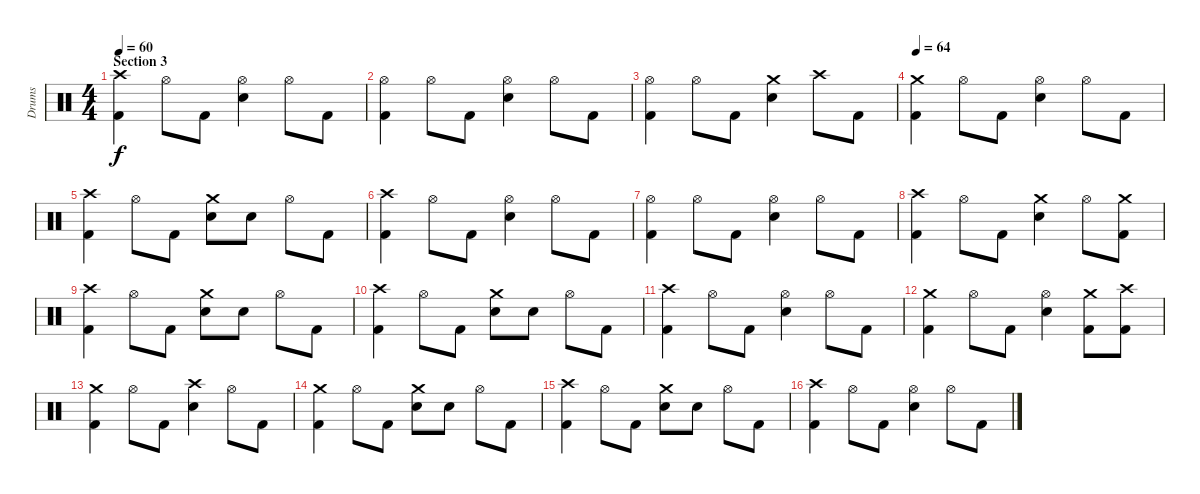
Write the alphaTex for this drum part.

\track ("Drums" "Drums") {instrument percussion}
\staff {score}
\articulation defaults
\ts (4 4)
\section ("" "Section 3")
\tempo 60
\clef neutral
\ks c
("Crash high (hit)" "Kick (hit) 2").4{dy f} "Hi-Hat (open)".8 "Kick (hit) 2".8 ("Hi-Hat (open)" "Electric Snare (hit)").4 "Hi-Hat (open)".8 "Kick (hit) 2".8 |
("Hi-Hat (open)" "Kick (hit) 2").4 "Hi-Hat (open)".8 "Kick (hit) 2".8 ("Hi-Hat (open)" "Electric Snare (hit)").4 "Hi-Hat (open)".8 "Kick (hit) 2".8 |
("Hi-Hat (open)" "Kick (hit) 2").4 "Hi-Hat (open)".8 "Kick (hit) 2".8 ("Crash medium (hit)" "Electric Snare (hit)").4 "Crash high (hit)".8 "Kick (hit) 2".8 |
\tempo 64
("Crash medium (hit)" "Kick (hit) 2").4 "Hi-Hat (open)".8 "Kick (hit) 2".8 ("Hi-Hat (open)" "Electric Snare (hit)").4 "Hi-Hat (open)".8 "Kick (hit) 2".8 |
("Crash high (hit)" "Kick (hit) 2").4 "Hi-Hat (open)".8 "Kick (hit) 2".8 ("Crash medium (hit)" "Electric Snare (hit)").8 "Electric Snare (hit)".8 "Hi-Hat (open)".8 "Kick (hit) 2".8 |
("Crash high (hit)" "Kick (hit) 2").4 "Hi-Hat (open)".8 "Kick (hit) 2".8 ("Hi-Hat (open)" "Electric Snare (hit)").4 "Hi-Hat (open)".8 "Kick (hit) 2".8 |
("Hi-Hat (open)" "Kick (hit) 2").4 "Hi-Hat (open)".8 "Kick (hit) 2".8 ("Hi-Hat (open)" "Electric Snare (hit)").4 "Hi-Hat (open)".8 "Kick (hit) 2".8 |
("Crash high (hit)" "Kick (hit) 2").4 "Hi-Hat (open)".8 "Kick (hit) 2".8 ("Crash medium (hit)" "Electric Snare (hit)").4 "Hi-Hat (open)".8 ("Crash medium (hit)" "Kick (hit) 2").8 |
("Crash high (hit)" "Kick (hit) 2").4 "Hi-Hat (open)".8 "Kick (hit) 2".8 ("Crash medium (hit)" "Electric Snare (hit)").8 "Electric Snare (hit)".8 "Hi-Hat (open)".8 "Kick (hit) 2".8 |
("Crash high (hit)" "Kick (hit) 2").4 "Hi-Hat (open)".8 "Kick (hit) 2".8 ("Crash medium (hit)" "Electric Snare (hit)").8 "Electric Snare (hit)".8 "Hi-Hat (open)".8 "Kick (hit) 2".8 |
("Crash high (hit)" "Kick (hit) 2").4 "Hi-Hat (open)".8 "Kick (hit) 2".8 ("Hi-Hat (open)" "Electric Snare (hit)").4 "Hi-Hat (open)".8 "Kick (hit) 2".8 |
("Crash medium (hit)" "Kick (hit) 2").4 "Hi-Hat (open)".8 "Kick (hit) 2".8 ("Hi-Hat (open)" "Electric Snare (hit)").4 ("Crash medium (hit)" "Kick (hit) 2").8 ("Crash high (hit)" "Kick (hit) 2").8 |
("Crash medium (hit)" "Kick (hit) 2").4 "Hi-Hat (open)".8 "Kick (hit) 2".8 ("Crash high (hit)" "Electric Snare (hit)").4 "Hi-Hat (open)".8 "Kick (hit) 2".8 |
("Crash medium (hit)" "Kick (hit) 2").4 "Hi-Hat (open)".8 "Kick (hit) 2".8 ("Crash medium (hit)" "Electric Snare (hit)").8 "Electric Snare (hit)".8 "Hi-Hat (open)".8 "Kick (hit) 2".8 |
("Crash high (hit)" "Kick (hit) 2").4 "Hi-Hat (open)".8 "Kick (hit) 2".8 ("Crash medium (hit)" "Electric Snare (hit)").8 "Electric Snare (hit)".8 "Hi-Hat (open)".8 "Kick (hit) 2".8 |
("Crash high (hit)" "Kick (hit) 2").4 "Hi-Hat (open)".8 "Kick (hit) 2".8 ("Hi-Hat (open)" "Electric Snare (hit)").4 "Hi-Hat (open)".8 "Kick (hit) 2".8
